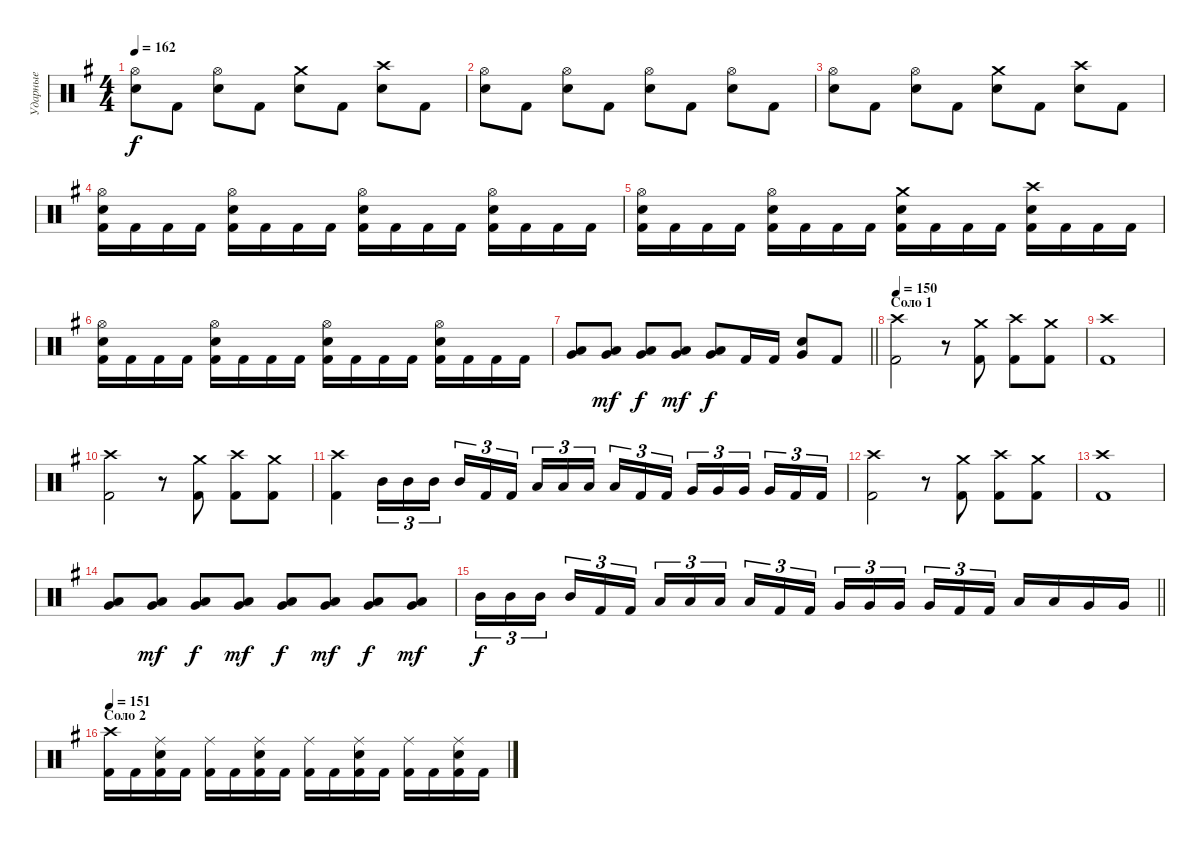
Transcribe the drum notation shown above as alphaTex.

\track ("Ударные" "Ударные") {instrument percussion}
\staff {score}
\articulation defaults
\ts (4 4)
\tempo 162
\clef neutral
\ks eminor
("Hi-Hat (open)" "Electric Snare (hit)").8{dy f} "Kick (hit) 2".8 ("Hi-Hat (open)" "Electric Snare (hit)").8 "Kick (hit) 2".8 ("Crash medium (hit)" "Electric Snare (hit)").8 "Kick (hit) 2".8 ("Crash high (hit)" "Electric Snare (hit)").8 "Kick (hit) 2".8 |
("Hi-Hat (open)" "Electric Snare (hit)").8 "Kick (hit) 2".8 ("Hi-Hat (open)" "Electric Snare (hit)").8 "Kick (hit) 2".8 ("Hi-Hat (open)" "Electric Snare (hit)").8 "Kick (hit) 2".8 ("Hi-Hat (open)" "Electric Snare (hit)").8 "Kick (hit) 2".8 |
("Hi-Hat (open)" "Electric Snare (hit)").8 "Kick (hit) 2".8 ("Hi-Hat (open)" "Electric Snare (hit)").8 "Kick (hit) 2".8 ("Crash medium (hit)" "Electric Snare (hit)").8 "Kick (hit) 2".8 ("Crash high (hit)" "Electric Snare (hit)").8 "Kick (hit) 2".8 |
("Hi-Hat (open)" "Electric Snare (hit)" "Kick (hit) 2").16 "Kick (hit) 2".16 "Kick (hit) 2".16 "Kick (hit) 2".16 ("Hi-Hat (open)" "Electric Snare (hit)" "Kick (hit) 2").16 "Kick (hit) 2".16 "Kick (hit) 2".16 "Kick (hit) 2".16 ("Hi-Hat (open)" "Electric Snare (hit)" "Kick (hit) 2").16 "Kick (hit) 2".16 "Kick (hit) 2".16 "Kick (hit) 2".16 ("Hi-Hat (open)" "Electric Snare (hit)" "Kick (hit) 2").16 "Kick (hit) 2".16 "Kick (hit) 2".16 "Kick (hit) 2".16 |
("Hi-Hat (open)" "Electric Snare (hit)" "Kick (hit) 2").16 "Kick (hit) 2".16 "Kick (hit) 2".16 "Kick (hit) 2".16 ("Hi-Hat (open)" "Electric Snare (hit)" "Kick (hit) 2").16 "Kick (hit) 2".16 "Kick (hit) 2".16 "Kick (hit) 2".16 ("Crash medium (hit)" "Electric Snare (hit)" "Kick (hit) 2").16 "Kick (hit) 2".16 "Kick (hit) 2".16 "Kick (hit) 2".16 ("Crash high (hit)" "Electric Snare (hit)" "Kick (hit) 2").16 "Kick (hit) 2".16 "Kick (hit) 2".16 "Kick (hit) 2".16 |
("Hi-Hat (open)" "Electric Snare (hit)" "Kick (hit) 2").16 "Kick (hit) 2".16 "Kick (hit) 2".16 "Kick (hit) 2".16 ("Hi-Hat (open)" "Electric Snare (hit)" "Kick (hit) 2").16 "Kick (hit) 2".16 "Kick (hit) 2".16 "Kick (hit) 2".16 ("Hi-Hat (open)" "Electric Snare (hit)" "Kick (hit) 2").16 "Kick (hit) 2".16 "Kick (hit) 2".16 "Kick (hit) 2".16 ("Hi-Hat (open)" "Electric Snare (hit)" "Kick (hit) 2").16 "Kick (hit) 2".16 "Kick (hit) 2".16 "Kick (hit) 2".16 |
\barLineRight lightlight
("Low Tom (hit)" "Very Low Tom (hit)").8 ("Low Tom (hit)" "Very Low Tom (hit)").8{dy mf} ("Low Tom (hit)" "Very Low Tom (hit)").8{dy f} ("Low Tom (hit)" "Very Low Tom (hit)").8{dy mf} ("Low Tom (hit)" "Very Low Tom (hit)").8{dy f} "Kick (hit) 2".16 "Kick (hit) 2".16 ("Very Low Tom (hit)" "Electric Snare (hit)").8 "Kick (hit) 2".8 |
\section ("" "Соло 1")
\tempo 150
("Crash high (hit)" "Kick (hit) 2").2 r.8 ("Crash medium (hit)" "Kick (hit) 2").8 ("Crash high (hit)" "Kick (hit) 2").8 ("Crash medium (hit)" "Kick (hit) 2").8 |
("Crash high (hit)" "Kick (hit) 2").1 |
("Crash high (hit)" "Kick (hit) 2").2 r.8 ("Crash medium (hit)" "Kick (hit) 2").8 ("Crash high (hit)" "Kick (hit) 2").8 ("Crash medium (hit)" "Kick (hit) 2").8 |
("Crash high (hit)" "Kick (hit) 2").4 "Mid Tom (hit)".16{tu (3 2)} "Mid Tom (hit)".16{tu (3 2)} "Mid Tom (hit)".16{tu (3 2) beam splitsecondary} "Mid Tom (hit)".16{tu (3 2)} "Kick (hit) 2".16{tu (3 2)} "Kick (hit) 2".16{tu (3 2)} "Low Tom (hit)".16{tu (3 2)} "Low Tom (hit)".16{tu (3 2)} "Low Tom (hit)".16{tu (3 2) beam splitsecondary} "Low Tom (hit)".16{tu (3 2)} "Kick (hit) 2".16{tu (3 2)} "Kick (hit) 2".16{tu (3 2)} "Very Low Tom (hit)".16{tu (3 2)} "Very Low Tom (hit)".16{tu (3 2)} "Very Low Tom (hit)".16{tu (3 2) beam splitsecondary} "Very Low Tom (hit)".16{tu (3 2)} "Kick (hit) 2".16{tu (3 2)} "Kick (hit) 2".16{tu (3 2)} |
("Crash high (hit)" "Kick (hit) 2").2 r.8 ("Crash medium (hit)" "Kick (hit) 2").8 ("Crash high (hit)" "Kick (hit) 2").8 ("Crash medium (hit)" "Kick (hit) 2").8 |
("Crash high (hit)" "Kick (hit) 2").1 |
("Low Tom (hit)" "Very Low Tom (hit)").8 ("Low Tom (hit)" "Very Low Tom (hit)").8{dy mf} ("Low Tom (hit)" "Very Low Tom (hit)").8{dy f} ("Low Tom (hit)" "Very Low Tom (hit)").8{dy mf} ("Low Tom (hit)" "Very Low Tom (hit)").8{dy f} ("Low Tom (hit)" "Very Low Tom (hit)").8{dy mf} ("Low Tom (hit)" "Very Low Tom (hit)").8{dy f} ("Low Tom (hit)" "Very Low Tom (hit)").8{dy mf} |
\barLineRight lightlight "Mid Tom (hit)".16{tu (3 2) dy f} "Mid Tom (hit)".16{tu (3 2)} "Mid Tom (hit)".16{tu (3 2) beam splitsecondary} "Mid Tom (hit)".16{tu (3 2)} "Kick (hit) 2".16{tu (3 2)} "Kick (hit) 2".16{tu (3 2)} "Low Tom (hit)".16{tu (3 2)} "Low Tom (hit)".16{tu (3 2)} "Low Tom (hit)".16{tu (3 2) beam splitsecondary} "Low Tom (hit)".16{tu (3 2)} "Kick (hit) 2".16{tu (3 2)} "Kick (hit) 2".16{tu (3 2)} "Very Low Tom (hit)".16{tu (3 2)} "Very Low Tom (hit)".16{tu (3 2)} "Very Low Tom (hit)".16{tu (3 2) beam splitsecondary} "Very Low Tom (hit)".16{tu (3 2)} "Kick (hit) 2".16{tu (3 2)} "Kick (hit) 2".16{tu (3 2)} "Low Tom (hit)".16 "Low Tom (hit)".16 "Very Low Tom (hit)".16 "Very Low Tom (hit)".16
|
\section ("" "Соло 2")
\tempo 151
("Crash high (hit)" "Kick (hit) 2").16 "Kick (hit) 2".16 ("Ride (middle)" "Electric Snare (hit)" "Kick (hit) 2").16 "Kick (hit) 2".16 ("Ride (middle)" "Kick (hit) 2").16 "Kick (hit) 2".16 ("Ride (middle)" "Electric Snare (hit)" "Kick (hit) 2").16 "Kick (hit) 2".16 ("Ride (middle)" "Kick (hit) 2").16 "Kick (hit) 2".16 ("Ride (middle)" "Electric Snare (hit)" "Kick (hit) 2").16 "Kick (hit) 2".16 ("Ride (middle)" "Kick (hit) 2").16 "Kick (hit) 2".16 ("Ride (middle)" "Electric Snare (hit)" "Kick (hit) 2").16 "Kick (hit) 2".16
